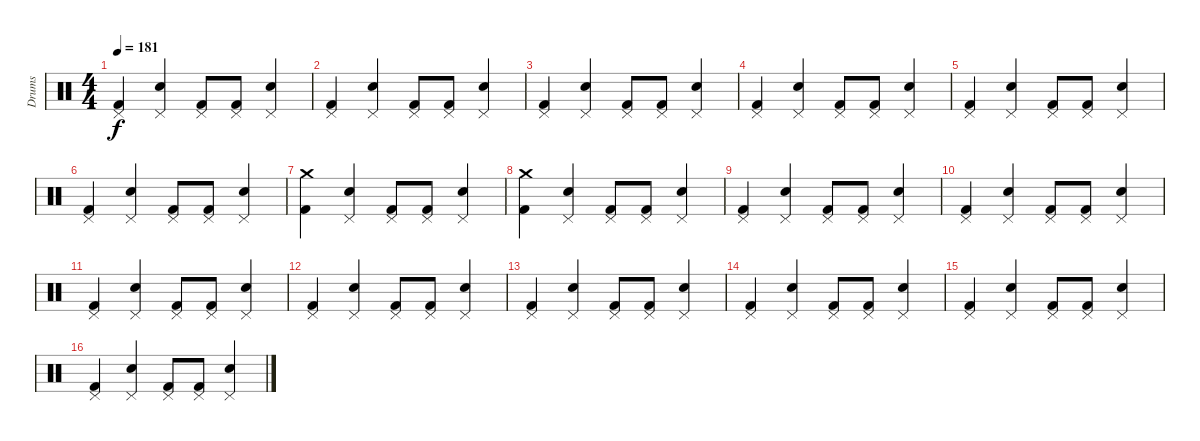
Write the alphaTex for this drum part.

\track ("Drums" "Drums") {instrument percussion}
\staff {score}
\articulation defaults
\ts (4 4)
\tempo 181
\clef neutral
\ks c
("Pedal Hi-Hat (hit)" "Kick (hit) 2").4{dy f} ("Pedal Hi-Hat (hit)" "Snare (hit) 2").4 ("Pedal Hi-Hat (hit)" "Kick (hit) 2").8 ("Pedal Hi-Hat (hit)" "Kick (hit) 2").8 ("Pedal Hi-Hat (hit)" "Snare (hit) 2").4 |
("Pedal Hi-Hat (hit)" "Kick (hit) 2").4 ("Pedal Hi-Hat (hit)" "Snare (hit) 2").4 ("Pedal Hi-Hat (hit)" "Kick (hit) 2").8 ("Pedal Hi-Hat (hit)" "Kick (hit) 2").8 ("Pedal Hi-Hat (hit)" "Snare (hit) 2").4 |
("Pedal Hi-Hat (hit)" "Kick (hit) 2").4 ("Pedal Hi-Hat (hit)" "Snare (hit) 2").4 ("Pedal Hi-Hat (hit)" "Kick (hit) 2").8 ("Pedal Hi-Hat (hit)" "Kick (hit) 2").8 ("Pedal Hi-Hat (hit)" "Snare (hit) 2").4 |
("Pedal Hi-Hat (hit)" "Kick (hit) 2").4 ("Pedal Hi-Hat (hit)" "Snare (hit) 2").4 ("Pedal Hi-Hat (hit)" "Kick (hit) 2").8 ("Pedal Hi-Hat (hit)" "Kick (hit) 2").8 ("Pedal Hi-Hat (hit)" "Snare (hit) 2").4 |
("Pedal Hi-Hat (hit)" "Kick (hit) 2").4 ("Pedal Hi-Hat (hit)" "Snare (hit) 2").4 ("Pedal Hi-Hat (hit)" "Kick (hit) 2").8 ("Pedal Hi-Hat (hit)" "Kick (hit) 2").8 ("Pedal Hi-Hat (hit)" "Snare (hit) 2").4 |
("Pedal Hi-Hat (hit)" "Kick (hit) 2").4 ("Pedal Hi-Hat (hit)" "Snare (hit) 2").4 ("Pedal Hi-Hat (hit)" "Kick (hit) 2").8 ("Pedal Hi-Hat (hit)" "Kick (hit) 2").8 ("Pedal Hi-Hat (hit)" "Snare (hit) 2").4 |
("Crash medium (hit)" "Kick (hit) 2").4 ("Pedal Hi-Hat (hit)" "Snare (hit) 2").4 ("Pedal Hi-Hat (hit)" "Kick (hit) 2").8 ("Pedal Hi-Hat (hit)" "Kick (hit) 2").8 ("Pedal Hi-Hat (hit)" "Snare (hit) 2").4 |
("Crash medium (hit)" "Kick (hit) 2").4 ("Pedal Hi-Hat (hit)" "Snare (hit) 2").4 ("Pedal Hi-Hat (hit)" "Kick (hit) 2").8 ("Pedal Hi-Hat (hit)" "Kick (hit) 2").8 ("Pedal Hi-Hat (hit)" "Snare (hit) 2").4 |
("Pedal Hi-Hat (hit)" "Kick (hit) 2").4 ("Pedal Hi-Hat (hit)" "Snare (hit) 2").4 ("Pedal Hi-Hat (hit)" "Kick (hit) 2").8 ("Pedal Hi-Hat (hit)" "Kick (hit) 2").8 ("Pedal Hi-Hat (hit)" "Snare (hit) 2").4 |
("Pedal Hi-Hat (hit)" "Kick (hit) 2").4 ("Pedal Hi-Hat (hit)" "Snare (hit) 2").4 ("Pedal Hi-Hat (hit)" "Kick (hit) 2").8 ("Pedal Hi-Hat (hit)" "Kick (hit) 2").8 ("Pedal Hi-Hat (hit)" "Snare (hit) 2").4 |
("Pedal Hi-Hat (hit)" "Kick (hit) 2").4 ("Pedal Hi-Hat (hit)" "Snare (hit) 2").4 ("Pedal Hi-Hat (hit)" "Kick (hit) 2").8 ("Pedal Hi-Hat (hit)" "Kick (hit) 2").8 ("Pedal Hi-Hat (hit)" "Snare (hit) 2").4 |
("Pedal Hi-Hat (hit)" "Kick (hit) 2").4 ("Pedal Hi-Hat (hit)" "Snare (hit) 2").4 ("Pedal Hi-Hat (hit)" "Kick (hit) 2").8 ("Pedal Hi-Hat (hit)" "Kick (hit) 2").8 ("Pedal Hi-Hat (hit)" "Snare (hit) 2").4 |
("Pedal Hi-Hat (hit)" "Kick (hit) 2").4 ("Pedal Hi-Hat (hit)" "Snare (hit) 2").4 ("Pedal Hi-Hat (hit)" "Kick (hit) 2").8 ("Pedal Hi-Hat (hit)" "Kick (hit) 2").8 ("Pedal Hi-Hat (hit)" "Snare (hit) 2").4 |
("Pedal Hi-Hat (hit)" "Kick (hit) 2").4 ("Pedal Hi-Hat (hit)" "Snare (hit) 2").4 ("Pedal Hi-Hat (hit)" "Kick (hit) 2").8 ("Pedal Hi-Hat (hit)" "Kick (hit) 2").8 ("Pedal Hi-Hat (hit)" "Snare (hit) 2").4 |
("Pedal Hi-Hat (hit)" "Kick (hit) 2").4 ("Pedal Hi-Hat (hit)" "Snare (hit) 2").4 ("Pedal Hi-Hat (hit)" "Kick (hit) 2").8 ("Pedal Hi-Hat (hit)" "Kick (hit) 2").8 ("Pedal Hi-Hat (hit)" "Snare (hit) 2").4 |
("Pedal Hi-Hat (hit)" "Kick (hit) 2").4 ("Pedal Hi-Hat (hit)" "Snare (hit) 2").4 ("Pedal Hi-Hat (hit)" "Kick (hit) 2").8 ("Pedal Hi-Hat (hit)" "Kick (hit) 2").8 ("Pedal Hi-Hat (hit)" "Snare (hit) 2").4
